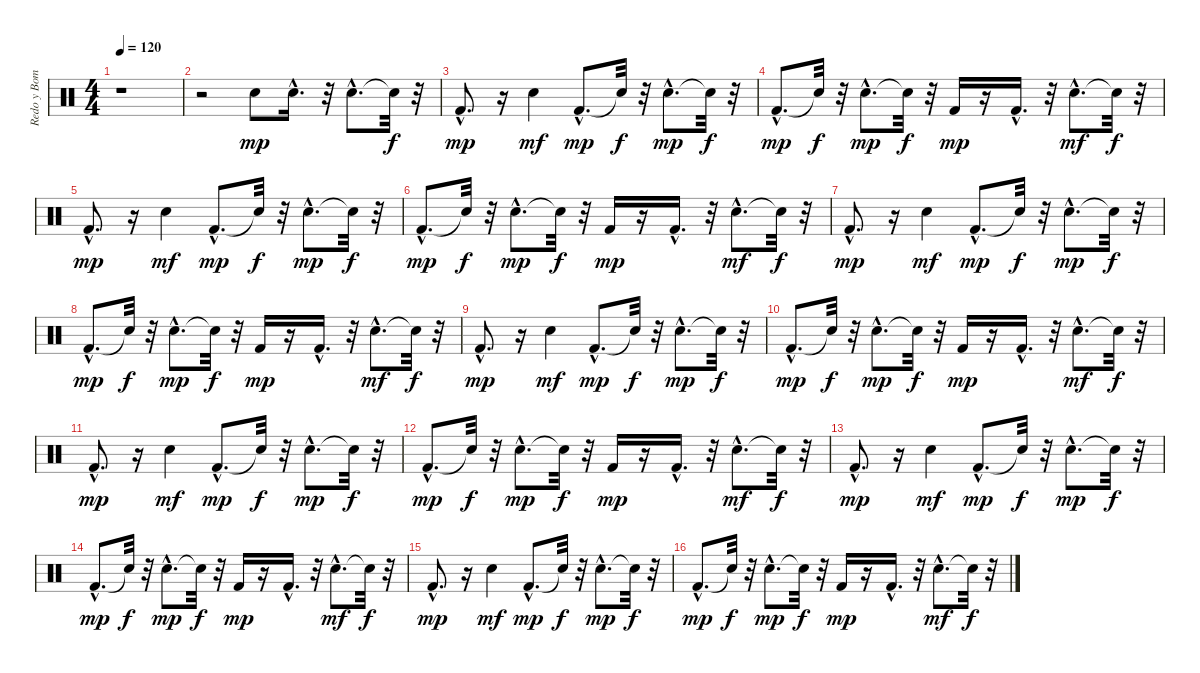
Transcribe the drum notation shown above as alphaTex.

\track ("Redo y Bombo" "Redo y Bom") {instrument percussion}
\staff {score}
\articulation defaults
\ts (4 4)
\tempo 120
\clef neutral
\ks c
r.1{dy f} |
r.2 "Snare (hit) 2".8{dy mp} "Snare (hit) 2"{hac}.16{d} r.32 "Snare (hit) 2"{hac}.8{d} "Snare (hit)"{t}.32{dy f} r.32 |
"Kick (hit) 2"{hac}.8{d dy mp} r.16 "Snare (hit) 2".4{dy mf} "Kick (hit) 2"{hac}.8{d dy mp} "Snare (hit)"{t}.32{dy f} r.32 "Snare (hit) 2"{hac}.8{d dy mp} "Snare (hit)"{t}.32{dy f} r.32 |
"Kick (hit) 2"{hac}.8{d dy mp} "Snare (hit)"{t}.32{dy f} r.32 "Snare (hit) 2"{hac}.8{d dy mp} "Snare (hit)"{t}.32{dy f} r.32 "Kick (hit) 2".16{dy mp} r.16 "Kick (hit) 2"{hac}.16{d} r.32 "Snare (hit) 2"{hac}.8{d dy mf} "Snare (hit)"{t}.32{dy f} r.32 |
"Kick (hit) 2"{hac}.8{d dy mp} r.16 "Snare (hit) 2".4{dy mf} "Kick (hit) 2"{hac}.8{d dy mp} "Snare (hit)"{t}.32{dy f} r.32 "Snare (hit) 2"{hac}.8{d dy mp} "Snare (hit)"{t}.32{dy f} r.32 |
"Kick (hit) 2"{hac}.8{d dy mp} "Snare (hit)"{t}.32{dy f} r.32 "Snare (hit) 2"{hac}.8{d dy mp} "Snare (hit)"{t}.32{dy f} r.32 "Kick (hit) 2".16{dy mp} r.16 "Kick (hit) 2"{hac}.16{d} r.32 "Snare (hit) 2"{hac}.8{d dy mf} "Snare (hit)"{t}.32{dy f} r.32 |
"Kick (hit) 2"{hac}.8{d dy mp} r.16 "Snare (hit) 2".4{dy mf} "Kick (hit) 2"{hac}.8{d dy mp} "Snare (hit)"{t}.32{dy f} r.32 "Snare (hit) 2"{hac}.8{d dy mp} "Snare (hit)"{t}.32{dy f} r.32 |
"Kick (hit) 2"{hac}.8{d dy mp} "Snare (hit)"{t}.32{dy f} r.32 "Snare (hit) 2"{hac}.8{d dy mp} "Snare (hit)"{t}.32{dy f} r.32 "Kick (hit) 2".16{dy mp} r.16 "Kick (hit) 2"{hac}.16{d} r.32 "Snare (hit) 2"{hac}.8{d dy mf} "Snare (hit)"{t}.32{dy f} r.32 |
"Kick (hit) 2"{hac}.8{d dy mp} r.16 "Snare (hit) 2".4{dy mf} "Kick (hit) 2"{hac}.8{d dy mp} "Snare (hit)"{t}.32{dy f} r.32 "Snare (hit) 2"{hac}.8{d dy mp} "Snare (hit)"{t}.32{dy f} r.32 |
"Kick (hit) 2"{hac}.8{d dy mp} "Snare (hit)"{t}.32{dy f} r.32 "Snare (hit) 2"{hac}.8{d dy mp} "Snare (hit)"{t}.32{dy f} r.32 "Kick (hit) 2".16{dy mp} r.16 "Kick (hit) 2"{hac}.16{d} r.32 "Snare (hit) 2"{hac}.8{d dy mf} "Snare (hit)"{t}.32{dy f} r.32 |
"Kick (hit) 2"{hac}.8{d dy mp} r.16 "Snare (hit) 2".4{dy mf} "Kick (hit) 2"{hac}.8{d dy mp} "Snare (hit)"{t}.32{dy f} r.32 "Snare (hit) 2"{hac}.8{d dy mp} "Snare (hit)"{t}.32{dy f} r.32 |
"Kick (hit) 2"{hac}.8{d dy mp} "Snare (hit)"{t}.32{dy f} r.32 "Snare (hit) 2"{hac}.8{d dy mp} "Snare (hit)"{t}.32{dy f} r.32 "Kick (hit) 2".16{dy mp} r.16 "Kick (hit) 2"{hac}.16{d} r.32 "Snare (hit) 2"{hac}.8{d dy mf} "Snare (hit)"{t}.32{dy f} r.32 |
"Kick (hit) 2"{hac}.8{d dy mp} r.16 "Snare (hit) 2".4{dy mf} "Kick (hit) 2"{hac}.8{d dy mp} "Snare (hit)"{t}.32{dy f} r.32 "Snare (hit) 2"{hac}.8{d dy mp} "Snare (hit)"{t}.32{dy f} r.32 |
"Kick (hit) 2"{hac}.8{d dy mp} "Snare (hit)"{t}.32{dy f} r.32 "Snare (hit) 2"{hac}.8{d dy mp} "Snare (hit)"{t}.32{dy f} r.32 "Kick (hit) 2".16{dy mp} r.16 "Kick (hit) 2"{hac}.16{d} r.32 "Snare (hit) 2"{hac}.8{d dy mf} "Snare (hit)"{t}.32{dy f} r.32 |
"Kick (hit) 2"{hac}.8{d dy mp} r.16 "Snare (hit) 2".4{dy mf} "Kick (hit) 2"{hac}.8{d dy mp} "Snare (hit)"{t}.32{dy f} r.32 "Snare (hit) 2"{hac}.8{d dy mp} "Snare (hit)"{t}.32{dy f} r.32 |
"Kick (hit) 2"{hac}.8{d dy mp} "Snare (hit)"{t}.32{dy f} r.32 "Snare (hit) 2"{hac}.8{d dy mp} "Snare (hit)"{t}.32{dy f} r.32 "Kick (hit) 2".16{dy mp} r.16 "Kick (hit) 2"{hac}.16{d} r.32 "Snare (hit) 2"{hac}.8{d dy mf} "Snare (hit)"{t}.32{dy f} r.32
